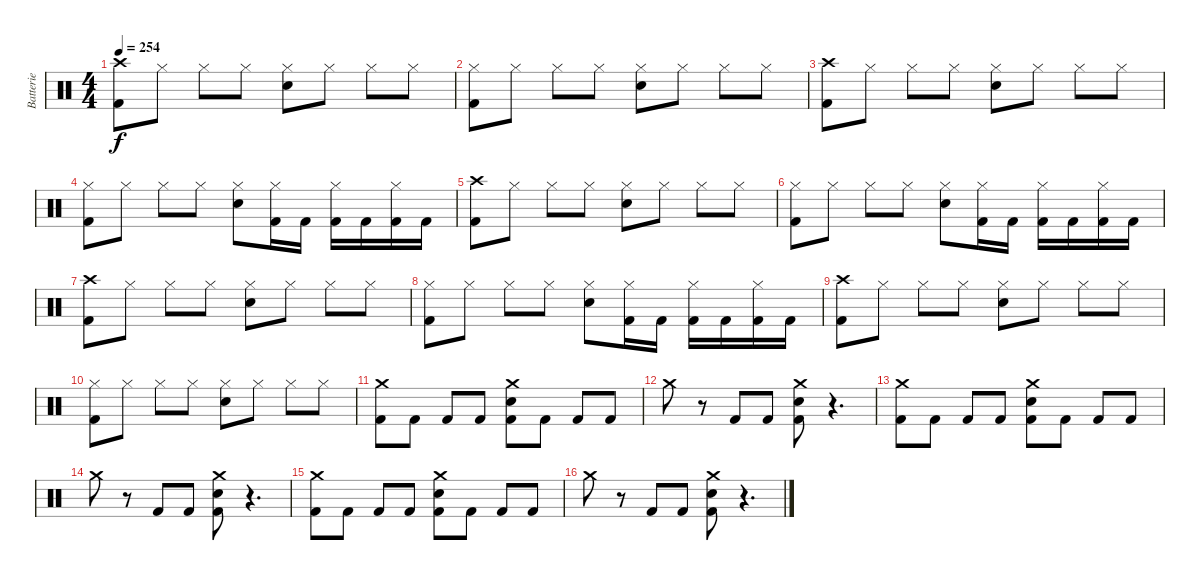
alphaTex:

\track ("Batterie" "Batterie") {instrument percussion}
\staff {score}
\articulation defaults
\ts (4 4)
\tempo 254
\clef neutral
\ks c
("Crash high (hit)" "Kick (hit) 2").8{dy f} "Hi-Hat (closed)".8 "Hi-Hat (closed)".8 "Hi-Hat (closed)".8 ("Hi-Hat (closed)" "Electric Snare (hit)").8 "Hi-Hat (closed)".8 "Hi-Hat (closed)".8 "Hi-Hat (closed)".8 |
("Hi-Hat (closed)" "Kick (hit) 2").8 "Hi-Hat (closed)".8 "Hi-Hat (closed)".8 "Hi-Hat (closed)".8 ("Hi-Hat (closed)" "Electric Snare (hit)").8 "Hi-Hat (closed)".8 "Hi-Hat (closed)".8 "Hi-Hat (closed)".8 |
("Crash high (hit)" "Kick (hit) 2").8 "Hi-Hat (closed)".8 "Hi-Hat (closed)".8 "Hi-Hat (closed)".8 ("Hi-Hat (closed)" "Electric Snare (hit)").8 "Hi-Hat (closed)".8 "Hi-Hat (closed)".8 "Hi-Hat (closed)".8 |
("Hi-Hat (closed)" "Kick (hit) 2").8 "Hi-Hat (closed)".8 "Hi-Hat (closed)".8 "Hi-Hat (closed)".8 ("Hi-Hat (closed)" "Electric Snare (hit)").8 ("Hi-Hat (closed)" "Kick (hit) 2").16 "Kick (hit) 2".16 ("Hi-Hat (closed)" "Kick (hit) 2").16 "Kick (hit) 2".16 ("Hi-Hat (closed)" "Kick (hit) 2").16 "Kick (hit) 2".16 |
("Crash high (hit)" "Kick (hit) 2").8 "Hi-Hat (closed)".8 "Hi-Hat (closed)".8 "Hi-Hat (closed)".8 ("Hi-Hat (closed)" "Electric Snare (hit)").8 "Hi-Hat (closed)".8 "Hi-Hat (closed)".8 "Hi-Hat (closed)".8 |
("Hi-Hat (closed)" "Kick (hit) 2").8 "Hi-Hat (closed)".8 "Hi-Hat (closed)".8 "Hi-Hat (closed)".8 ("Hi-Hat (closed)" "Electric Snare (hit)").8 ("Hi-Hat (closed)" "Kick (hit) 2").16 "Kick (hit) 2".16 ("Hi-Hat (closed)" "Kick (hit) 2").16 "Kick (hit) 2".16 ("Hi-Hat (closed)" "Kick (hit) 2").16 "Kick (hit) 2".16 |
("Crash high (hit)" "Kick (hit) 2").8 "Hi-Hat (closed)".8 "Hi-Hat (closed)".8 "Hi-Hat (closed)".8 ("Hi-Hat (closed)" "Electric Snare (hit)").8 "Hi-Hat (closed)".8 "Hi-Hat (closed)".8 "Hi-Hat (closed)".8 |
("Hi-Hat (closed)" "Kick (hit) 2").8 "Hi-Hat (closed)".8 "Hi-Hat (closed)".8 "Hi-Hat (closed)".8 ("Hi-Hat (closed)" "Electric Snare (hit)").8 ("Hi-Hat (closed)" "Kick (hit) 2").16 "Kick (hit) 2".16 ("Hi-Hat (closed)" "Kick (hit) 2").16 "Kick (hit) 2".16 ("Hi-Hat (closed)" "Kick (hit) 2").16 "Kick (hit) 2".16 |
("Crash high (hit)" "Kick (hit) 2").8 "Hi-Hat (closed)".8 "Hi-Hat (closed)".8 "Hi-Hat (closed)".8 ("Hi-Hat (closed)" "Electric Snare (hit)").8 "Hi-Hat (closed)".8 "Hi-Hat (closed)".8 "Hi-Hat (closed)".8 |
("Hi-Hat (closed)" "Kick (hit) 2").8 "Hi-Hat (closed)".8 "Hi-Hat (closed)".8 "Hi-Hat (closed)".8 ("Hi-Hat (closed)" "Electric Snare (hit)").8 "Hi-Hat (closed)".8 "Hi-Hat (closed)".8 "Hi-Hat (closed)".8 |
\section ("" "")
("Crash medium (hit)" "Kick (hit) 2").8 "Kick (hit) 2".8 "Kick (hit) 2".8 "Kick (hit) 2".8 ("Crash medium (hit)" "Electric Snare (hit)" "Kick (hit) 2").8 "Kick (hit) 2".8 "Kick (hit) 2".8 "Kick (hit) 2".8 |
"Crash medium (hit)".8 r.8 "Kick (hit) 2".8 "Kick (hit) 2".8 ("Crash medium (hit)" "Electric Snare (hit)" "Kick (hit) 2").8 r.4{d} |
("Crash medium (hit)" "Kick (hit) 2").8 "Kick (hit) 2".8 "Kick (hit) 2".8 "Kick (hit) 2".8 ("Crash medium (hit)" "Electric Snare (hit)" "Kick (hit) 2").8 "Kick (hit) 2".8 "Kick (hit) 2".8 "Kick (hit) 2".8 |
"Crash medium (hit)".8 r.8 "Kick (hit) 2".8 "Kick (hit) 2".8 ("Crash medium (hit)" "Electric Snare (hit)" "Kick (hit) 2").8 r.4{d} |
("Crash medium (hit)" "Kick (hit) 2").8 "Kick (hit) 2".8 "Kick (hit) 2".8 "Kick (hit) 2".8 ("Crash medium (hit)" "Electric Snare (hit)" "Kick (hit) 2").8 "Kick (hit) 2".8 "Kick (hit) 2".8 "Kick (hit) 2".8 |
"Crash medium (hit)".8 r.8 "Kick (hit) 2".8 "Kick (hit) 2".8 ("Crash medium (hit)" "Electric Snare (hit)" "Kick (hit) 2").8 r.4{d}
